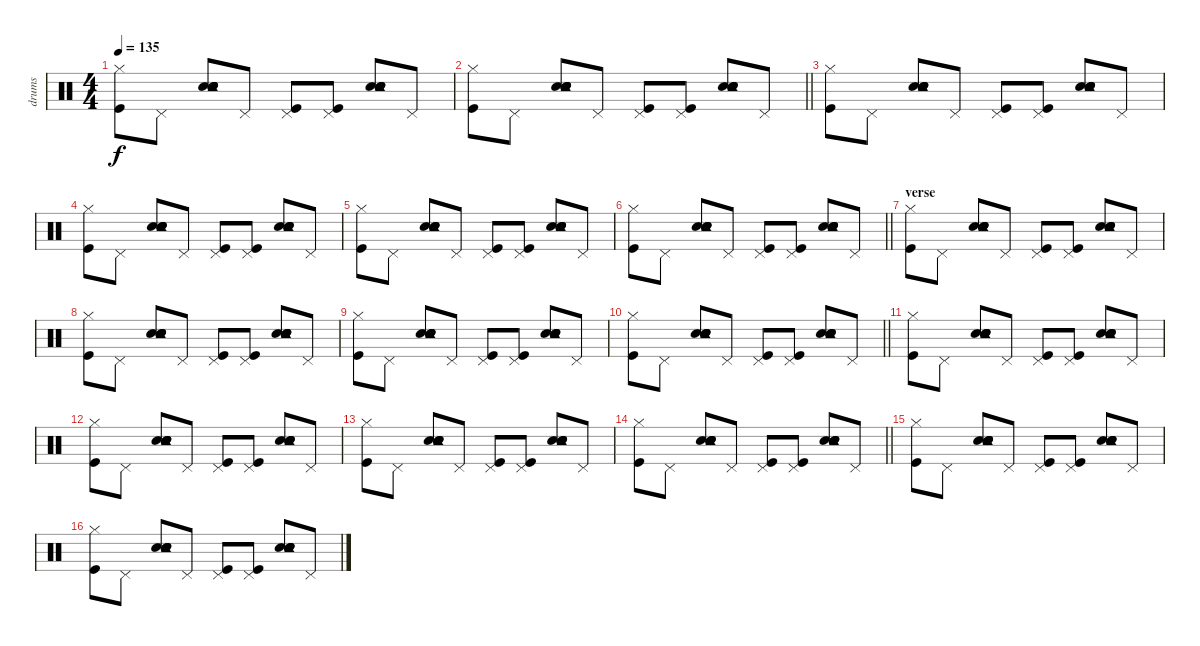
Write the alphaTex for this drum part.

\track ("drums" "drums") {instrument percussion}
\staff {score}
\articulation defaults
\ts (4 4)
\tempo 135
\clef neutral
\ks c
("Kick (hit)" "Hi-Hat (closed)").8{dy f} "Pedal Hi-Hat (hit)".8 ("Snare (hit) 2" "Snare (hit) 2" "Electric Snare (hit)" "Electric Snare (hit)" "Tambourine (hit)").8 "Pedal Hi-Hat (hit)".8 ("Kick (hit)" "Pedal Hi-Hat (hit)").8 ("Kick (hit)" "Pedal Hi-Hat (hit)").8 ("Snare (hit) 2" "Snare (hit) 2" "Electric Snare (hit)" "Electric Snare (hit)" "Tambourine (hit)").8 "Pedal Hi-Hat (hit)".8 |
\barLineRight lightlight
("Kick (hit)" "Hi-Hat (closed)").8 "Pedal Hi-Hat (hit)".8 ("Snare (hit) 2" "Snare (hit) 2" "Electric Snare (hit)" "Electric Snare (hit)" "Tambourine (hit)").8 "Pedal Hi-Hat (hit)".8 ("Kick (hit)" "Pedal Hi-Hat (hit)").8 ("Kick (hit)" "Pedal Hi-Hat (hit)").8 ("Snare (hit) 2" "Snare (hit) 2" "Electric Snare (hit)" "Electric Snare (hit)" "Tambourine (hit)").8 "Pedal Hi-Hat (hit)".8 |
("Kick (hit)" "Hi-Hat (closed)").8 "Pedal Hi-Hat (hit)".8 ("Snare (hit) 2" "Snare (hit) 2" "Electric Snare (hit)" "Electric Snare (hit)" "Tambourine (hit)").8 "Pedal Hi-Hat (hit)".8 ("Kick (hit)" "Pedal Hi-Hat (hit)").8 ("Kick (hit)" "Pedal Hi-Hat (hit)").8 ("Snare (hit) 2" "Snare (hit) 2" "Electric Snare (hit)" "Electric Snare (hit)" "Tambourine (hit)").8 "Pedal Hi-Hat (hit)".8 |
("Kick (hit)" "Hi-Hat (closed)").8 "Pedal Hi-Hat (hit)".8 ("Snare (hit) 2" "Snare (hit) 2" "Electric Snare (hit)" "Electric Snare (hit)" "Tambourine (hit)").8 "Pedal Hi-Hat (hit)".8 ("Kick (hit)" "Pedal Hi-Hat (hit)").8 ("Kick (hit)" "Pedal Hi-Hat (hit)").8 ("Snare (hit) 2" "Snare (hit) 2" "Electric Snare (hit)" "Electric Snare (hit)" "Tambourine (hit)").8 "Pedal Hi-Hat (hit)".8 |
("Kick (hit)" "Hi-Hat (closed)").8 "Pedal Hi-Hat (hit)".8 ("Snare (hit) 2" "Snare (hit) 2" "Electric Snare (hit)" "Electric Snare (hit)" "Tambourine (hit)").8 "Pedal Hi-Hat (hit)".8 ("Kick (hit)" "Pedal Hi-Hat (hit)").8 ("Kick (hit)" "Pedal Hi-Hat (hit)").8 ("Snare (hit) 2" "Snare (hit) 2" "Electric Snare (hit)" "Electric Snare (hit)" "Tambourine (hit)").8 "Pedal Hi-Hat (hit)".8 |
\barLineRight lightlight
("Kick (hit)" "Hi-Hat (closed)").8 "Pedal Hi-Hat (hit)".8 ("Snare (hit) 2" "Snare (hit) 2" "Electric Snare (hit)" "Electric Snare (hit)" "Tambourine (hit)").8 "Pedal Hi-Hat (hit)".8 ("Kick (hit)" "Pedal Hi-Hat (hit)").8 ("Kick (hit)" "Pedal Hi-Hat (hit)").8 ("Snare (hit) 2" "Snare (hit) 2" "Electric Snare (hit)" "Electric Snare (hit)" "Tambourine (hit)").8 "Pedal Hi-Hat (hit)".8 |
\section ("" "verse")
("Kick (hit)" "Hi-Hat (closed)").8 "Pedal Hi-Hat (hit)".8 ("Snare (hit) 2" "Snare (hit) 2" "Electric Snare (hit)" "Electric Snare (hit)" "Tambourine (hit)").8 "Pedal Hi-Hat (hit)".8 ("Kick (hit)" "Pedal Hi-Hat (hit)").8 ("Kick (hit)" "Pedal Hi-Hat (hit)").8 ("Snare (hit) 2" "Snare (hit) 2" "Electric Snare (hit)" "Electric Snare (hit)" "Tambourine (hit)").8 "Pedal Hi-Hat (hit)".8 |
("Kick (hit)" "Hi-Hat (closed)").8 "Pedal Hi-Hat (hit)".8 ("Snare (hit) 2" "Snare (hit) 2" "Electric Snare (hit)" "Electric Snare (hit)" "Tambourine (hit)").8 "Pedal Hi-Hat (hit)".8 ("Kick (hit)" "Pedal Hi-Hat (hit)").8 ("Kick (hit)" "Pedal Hi-Hat (hit)").8 ("Snare (hit) 2" "Snare (hit) 2" "Electric Snare (hit)" "Electric Snare (hit)" "Tambourine (hit)").8 "Pedal Hi-Hat (hit)".8 |
("Kick (hit)" "Hi-Hat (closed)").8 "Pedal Hi-Hat (hit)".8 ("Snare (hit) 2" "Snare (hit) 2" "Electric Snare (hit)" "Electric Snare (hit)" "Tambourine (hit)").8 "Pedal Hi-Hat (hit)".8 ("Kick (hit)" "Pedal Hi-Hat (hit)").8 ("Kick (hit)" "Pedal Hi-Hat (hit)").8 ("Snare (hit) 2" "Snare (hit) 2" "Electric Snare (hit)" "Electric Snare (hit)" "Tambourine (hit)").8 "Pedal Hi-Hat (hit)".8 |
\barLineRight lightlight
("Kick (hit)" "Hi-Hat (closed)").8 "Pedal Hi-Hat (hit)".8 ("Snare (hit) 2" "Snare (hit) 2" "Electric Snare (hit)" "Electric Snare (hit)" "Tambourine (hit)").8 "Pedal Hi-Hat (hit)".8 ("Kick (hit)" "Pedal Hi-Hat (hit)").8 ("Kick (hit)" "Pedal Hi-Hat (hit)").8 ("Snare (hit) 2" "Snare (hit) 2" "Electric Snare (hit)" "Electric Snare (hit)" "Tambourine (hit)").8 "Pedal Hi-Hat (hit)".8 |
("Kick (hit)" "Hi-Hat (closed)").8 "Pedal Hi-Hat (hit)".8 ("Snare (hit) 2" "Snare (hit) 2" "Electric Snare (hit)" "Electric Snare (hit)" "Tambourine (hit)").8 "Pedal Hi-Hat (hit)".8 ("Kick (hit)" "Pedal Hi-Hat (hit)").8 ("Kick (hit)" "Pedal Hi-Hat (hit)").8 ("Snare (hit) 2" "Snare (hit) 2" "Electric Snare (hit)" "Electric Snare (hit)" "Tambourine (hit)").8 "Pedal Hi-Hat (hit)".8 |
("Kick (hit)" "Hi-Hat (closed)").8 "Pedal Hi-Hat (hit)".8 ("Snare (hit) 2" "Snare (hit) 2" "Electric Snare (hit)" "Electric Snare (hit)" "Tambourine (hit)").8 "Pedal Hi-Hat (hit)".8 ("Kick (hit)" "Pedal Hi-Hat (hit)").8 ("Kick (hit)" "Pedal Hi-Hat (hit)").8 ("Snare (hit) 2" "Snare (hit) 2" "Electric Snare (hit)" "Electric Snare (hit)" "Tambourine (hit)").8 "Pedal Hi-Hat (hit)".8 |
("Kick (hit)" "Hi-Hat (closed)").8 "Pedal Hi-Hat (hit)".8 ("Snare (hit) 2" "Snare (hit) 2" "Electric Snare (hit)" "Electric Snare (hit)" "Tambourine (hit)").8 "Pedal Hi-Hat (hit)".8 ("Kick (hit)" "Pedal Hi-Hat (hit)").8 ("Kick (hit)" "Pedal Hi-Hat (hit)").8 ("Snare (hit) 2" "Snare (hit) 2" "Electric Snare (hit)" "Electric Snare (hit)" "Tambourine (hit)").8 "Pedal Hi-Hat (hit)".8 |
\barLineRight lightlight
("Kick (hit)" "Hi-Hat (closed)").8 "Pedal Hi-Hat (hit)".8 ("Snare (hit) 2" "Snare (hit) 2" "Electric Snare (hit)" "Electric Snare (hit)" "Tambourine (hit)").8 "Pedal Hi-Hat (hit)".8 ("Kick (hit)" "Pedal Hi-Hat (hit)").8 ("Kick (hit)" "Pedal Hi-Hat (hit)").8 ("Snare (hit) 2" "Snare (hit) 2" "Electric Snare (hit)" "Electric Snare (hit)" "Tambourine (hit)").8 "Pedal Hi-Hat (hit)".8 |
("Kick (hit)" "Hi-Hat (closed)").8 "Pedal Hi-Hat (hit)".8 ("Snare (hit) 2" "Snare (hit) 2" "Electric Snare (hit)" "Electric Snare (hit)" "Tambourine (hit)").8 "Pedal Hi-Hat (hit)".8 ("Kick (hit)" "Pedal Hi-Hat (hit)").8 ("Kick (hit)" "Pedal Hi-Hat (hit)").8 ("Snare (hit) 2" "Snare (hit) 2" "Electric Snare (hit)" "Electric Snare (hit)" "Tambourine (hit)").8 "Pedal Hi-Hat (hit)".8 |
("Kick (hit)" "Hi-Hat (closed)").8 "Pedal Hi-Hat (hit)".8 ("Snare (hit) 2" "Snare (hit) 2" "Electric Snare (hit)" "Electric Snare (hit)" "Tambourine (hit)").8 "Pedal Hi-Hat (hit)".8 ("Kick (hit)" "Pedal Hi-Hat (hit)").8 ("Kick (hit)" "Pedal Hi-Hat (hit)").8 ("Snare (hit) 2" "Snare (hit) 2" "Electric Snare (hit)" "Electric Snare (hit)" "Tambourine (hit)").8 "Pedal Hi-Hat (hit)".8
